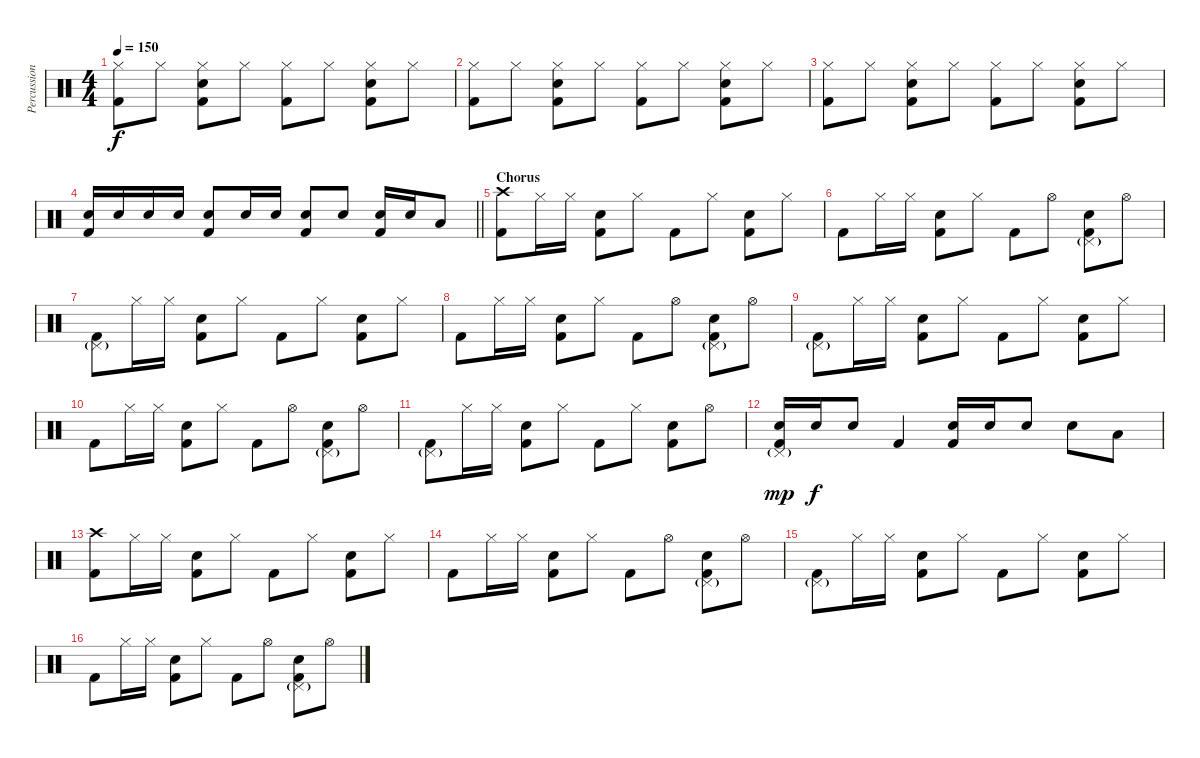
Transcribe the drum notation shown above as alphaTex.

\track ("Percussion" "Percussion") {instrument percussion}
\staff {score}
\articulation defaults
\ts (4 4)
\tempo 150
\clef neutral
\ks c
("Hi-Hat (closed)" "Kick (hit) 2").8{dy f} "Hi-Hat (closed)".8 ("Hi-Hat (closed)" "Electric Snare (hit)" "Kick (hit) 2").8 "Hi-Hat (closed)".8 ("Hi-Hat (closed)" "Kick (hit) 2").8 "Hi-Hat (closed)".8 ("Hi-Hat (closed)" "Electric Snare (hit)" "Kick (hit) 2").8 "Hi-Hat (closed)".8 |
("Hi-Hat (closed)" "Kick (hit) 2").8 "Hi-Hat (closed)".8 ("Hi-Hat (closed)" "Electric Snare (hit)" "Kick (hit) 2").8 "Hi-Hat (closed)".8 ("Hi-Hat (closed)" "Kick (hit) 2").8 "Hi-Hat (closed)".8 ("Hi-Hat (closed)" "Electric Snare (hit)" "Kick (hit) 2").8 "Hi-Hat (closed)".8 |
("Hi-Hat (closed)" "Kick (hit) 2").8 "Hi-Hat (closed)".8 ("Hi-Hat (closed)" "Electric Snare (hit)" "Kick (hit) 2").8 "Hi-Hat (closed)".8 ("Hi-Hat (closed)" "Kick (hit) 2").8 "Hi-Hat (closed)".8 ("Hi-Hat (closed)" "Electric Snare (hit)" "Kick (hit) 2").8 "Hi-Hat (closed)".8 |
\barLineRight lightlight
("Electric Snare (hit)" "Kick (hit) 2").16 "Electric Snare (hit)".16 "Electric Snare (hit)".16 "Electric Snare (hit)".16 ("Electric Snare (hit)" "Kick (hit) 2").8 "Electric Snare (hit)".16 "Electric Snare (hit)".16 ("Electric Snare (hit)" "Kick (hit) 2").8 "Electric Snare (hit)".8 ("Electric Snare (hit)" "Kick (hit) 2").16 "Electric Snare (hit)".16 "Low Tom (hit)".8 |
\section ("" "Chorus")
("Crash high (hit)" "Kick (hit) 2").8 "Hi-Hat (closed)".16 "Hi-Hat (closed)".16 ("Electric Snare (hit)" "Kick (hit) 2").8 "Hi-Hat (closed)".8 "Kick (hit) 2".8 "Hi-Hat (closed)".8 ("Electric Snare (hit)" "Kick (hit) 2").8 "Hi-Hat (closed)".8 |
"Kick (hit) 2".8 "Hi-Hat (closed)".16 "Hi-Hat (closed)".16 ("Electric Snare (hit)" "Kick (hit) 2").8 "Hi-Hat (closed)".8 "Kick (hit) 2".8 "Hi-Hat (open)".8 ("Pedal Hi-Hat (hit)"{g} "Electric Snare (hit)" "Kick (hit) 2").8 "Hi-Hat (open)".8 |
("Pedal Hi-Hat (hit)"{g} "Kick (hit) 2").8 "Hi-Hat (closed)".16 "Hi-Hat (closed)".16 ("Electric Snare (hit)" "Kick (hit) 2").8 "Hi-Hat (closed)".8 "Kick (hit) 2".8 "Hi-Hat (closed)".8 ("Electric Snare (hit)" "Kick (hit) 2").8 "Hi-Hat (closed)".8 |
"Kick (hit) 2".8 "Hi-Hat (closed)".16 "Hi-Hat (closed)".16 ("Electric Snare (hit)" "Kick (hit) 2").8 "Hi-Hat (closed)".8 "Kick (hit) 2".8 "Hi-Hat (open)".8 ("Pedal Hi-Hat (hit)"{g} "Electric Snare (hit)" "Kick (hit) 2").8 "Hi-Hat (open)".8 |
("Pedal Hi-Hat (hit)"{g} "Kick (hit) 2").8 "Hi-Hat (closed)".16 "Hi-Hat (closed)".16 ("Electric Snare (hit)" "Kick (hit) 2").8 "Hi-Hat (closed)".8 "Kick (hit) 2".8 "Hi-Hat (closed)".8 ("Electric Snare (hit)" "Kick (hit) 2").8 "Hi-Hat (closed)".8 |
"Kick (hit) 2".8 "Hi-Hat (closed)".16 "Hi-Hat (closed)".16 ("Electric Snare (hit)" "Kick (hit) 2").8 "Hi-Hat (closed)".8 "Kick (hit) 2".8 "Hi-Hat (open)".8 ("Pedal Hi-Hat (hit)"{g} "Electric Snare (hit)" "Kick (hit) 2").8 "Hi-Hat (open)".8 |
("Pedal Hi-Hat (hit)"{g} "Kick (hit) 2").8 "Hi-Hat (closed)".16 "Hi-Hat (closed)".16 ("Electric Snare (hit)" "Kick (hit) 2").8 "Hi-Hat (closed)".8 "Kick (hit) 2".8 "Hi-Hat (closed)".8 ("Electric Snare (hit)" "Kick (hit) 2").8 "Hi-Hat (open)".8 |
("Pedal Hi-Hat (hit)"{g} "Electric Snare (hit)" "Kick (hit) 2").16{dy mp} "Electric Snare (hit)".16{dy f} "Electric Snare (hit)".8 "Kick (hit) 2".4 ("Electric Snare (hit)" "Kick (hit) 2").16 "Electric Snare (hit)".16 "Electric Snare (hit)".8 "Electric Snare (hit)".8 "Low Tom (hit)".8 |
("Crash high (hit)" "Kick (hit) 2").8 "Hi-Hat (closed)".16 "Hi-Hat (closed)".16 ("Electric Snare (hit)" "Kick (hit) 2").8 "Hi-Hat (closed)".8 "Kick (hit) 2".8 "Hi-Hat (closed)".8 ("Electric Snare (hit)" "Kick (hit) 2").8 "Hi-Hat (closed)".8 |
"Kick (hit) 2".8 "Hi-Hat (closed)".16 "Hi-Hat (closed)".16 ("Electric Snare (hit)" "Kick (hit) 2").8 "Hi-Hat (closed)".8 "Kick (hit) 2".8 "Hi-Hat (open)".8 ("Pedal Hi-Hat (hit)"{g} "Electric Snare (hit)" "Kick (hit) 2").8 "Hi-Hat (open)".8 |
("Pedal Hi-Hat (hit)"{g} "Kick (hit) 2").8 "Hi-Hat (closed)".16 "Hi-Hat (closed)".16 ("Electric Snare (hit)" "Kick (hit) 2").8 "Hi-Hat (closed)".8 "Kick (hit) 2".8 "Hi-Hat (closed)".8 ("Electric Snare (hit)" "Kick (hit) 2").8 "Hi-Hat (closed)".8 |
"Kick (hit) 2".8 "Hi-Hat (closed)".16 "Hi-Hat (closed)".16 ("Electric Snare (hit)" "Kick (hit) 2").8 "Hi-Hat (closed)".8 "Kick (hit) 2".8 "Hi-Hat (open)".8 ("Pedal Hi-Hat (hit)"{g} "Electric Snare (hit)" "Kick (hit) 2").8 "Hi-Hat (open)".8
